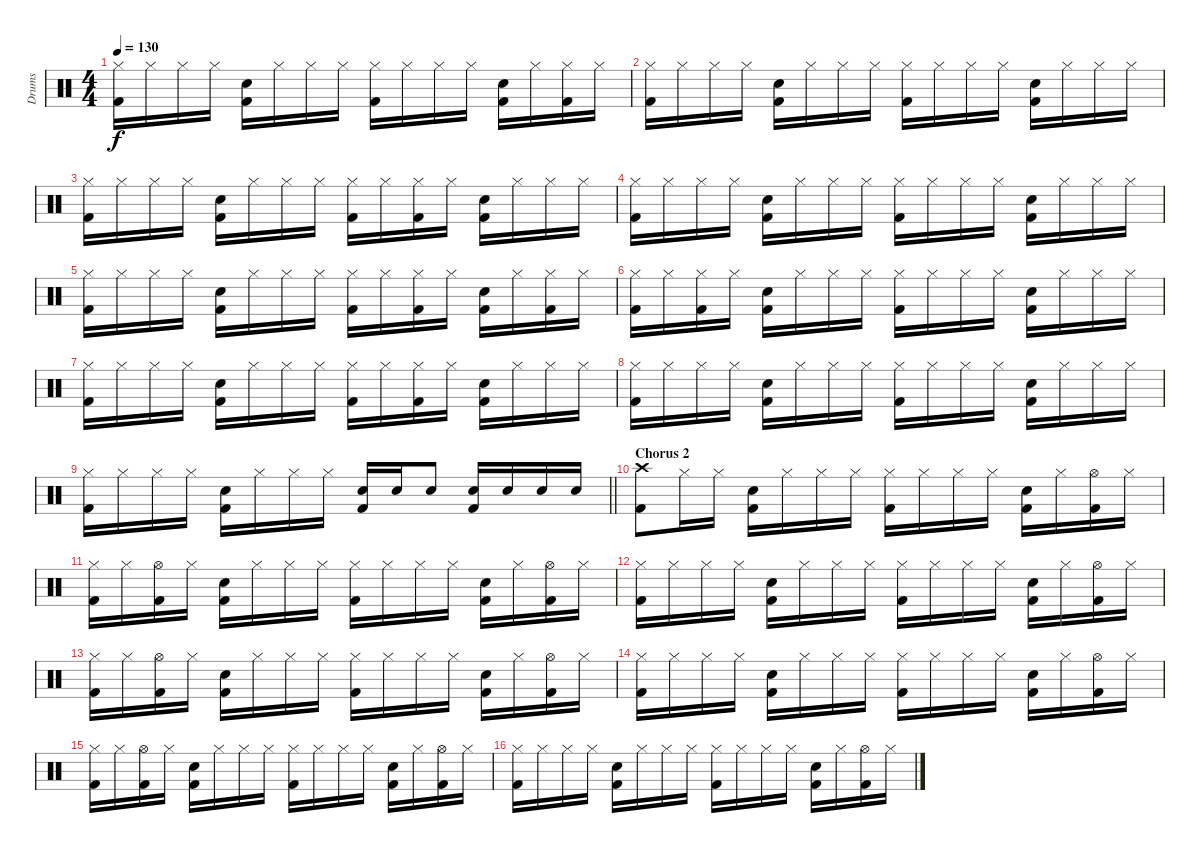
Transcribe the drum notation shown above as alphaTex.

\track ("Drums" "Drums") {instrument percussion}
\staff {score}
\articulation defaults
\ts (4 4)
\tempo 130
\clef neutral
\ks c
("Hi-Hat (closed)" "Kick (hit) 2").16{dy f} "Hi-Hat (closed)".16 "Hi-Hat (closed)".16 "Hi-Hat (closed)".16 ("Electric Snare (hit)" "Kick (hit) 2").16 "Hi-Hat (closed)".16 "Hi-Hat (closed)".16 "Hi-Hat (closed)".16 ("Hi-Hat (closed)" "Kick (hit) 2").16 "Hi-Hat (closed)".16 "Hi-Hat (closed)".16 "Hi-Hat (closed)".16 ("Electric Snare (hit)" "Kick (hit) 2").16 "Hi-Hat (closed)".16 ("Hi-Hat (closed)" "Kick (hit) 2").16 "Hi-Hat (closed)".16 |
("Hi-Hat (closed)" "Kick (hit) 2").16 "Hi-Hat (closed)".16 "Hi-Hat (closed)".16 "Hi-Hat (closed)".16 ("Electric Snare (hit)" "Kick (hit) 2").16 "Hi-Hat (closed)".16 "Hi-Hat (closed)".16 "Hi-Hat (closed)".16 ("Hi-Hat (closed)" "Kick (hit) 2").16 "Hi-Hat (closed)".16 "Hi-Hat (closed)".16 "Hi-Hat (closed)".16 ("Electric Snare (hit)" "Kick (hit) 2").16 "Hi-Hat (closed)".16 "Hi-Hat (closed)".16 "Hi-Hat (closed)".16 |
("Hi-Hat (closed)" "Kick (hit) 2").16 "Hi-Hat (closed)".16 "Hi-Hat (closed)".16 "Hi-Hat (closed)".16 ("Electric Snare (hit)" "Kick (hit) 2").16 "Hi-Hat (closed)".16 "Hi-Hat (closed)".16 "Hi-Hat (closed)".16 ("Hi-Hat (closed)" "Kick (hit) 2").16 "Hi-Hat (closed)".16 ("Hi-Hat (closed)" "Kick (hit) 2").16 "Hi-Hat (closed)".16 ("Electric Snare (hit)" "Kick (hit) 2").16 "Hi-Hat (closed)".16 "Hi-Hat (closed)".16 "Hi-Hat (closed)".16 |
("Hi-Hat (closed)" "Kick (hit) 2").16 "Hi-Hat (closed)".16 "Hi-Hat (closed)".16 "Hi-Hat (closed)".16 ("Electric Snare (hit)" "Kick (hit) 2").16 "Hi-Hat (closed)".16 "Hi-Hat (closed)".16 "Hi-Hat (closed)".16 ("Hi-Hat (closed)" "Kick (hit) 2").16 "Hi-Hat (closed)".16 "Hi-Hat (closed)".16 "Hi-Hat (closed)".16 ("Electric Snare (hit)" "Kick (hit) 2").16 "Hi-Hat (closed)".16 "Hi-Hat (closed)".16 "Hi-Hat (closed)".16 |
("Hi-Hat (closed)" "Kick (hit) 2").16 "Hi-Hat (closed)".16 "Hi-Hat (closed)".16 "Hi-Hat (closed)".16 ("Electric Snare (hit)" "Kick (hit) 2").16 "Hi-Hat (closed)".16 "Hi-Hat (closed)".16 "Hi-Hat (closed)".16 ("Hi-Hat (closed)" "Kick (hit) 2").16 "Hi-Hat (closed)".16 ("Hi-Hat (closed)" "Kick (hit) 2").16 "Hi-Hat (closed)".16 ("Electric Snare (hit)" "Kick (hit) 2").16 "Hi-Hat (closed)".16 ("Hi-Hat (closed)" "Kick (hit) 2").16 "Hi-Hat (closed)".16 |
("Hi-Hat (closed)" "Kick (hit) 2").16 "Hi-Hat (closed)".16 ("Hi-Hat (closed)" "Kick (hit) 2").16 "Hi-Hat (closed)".16 ("Electric Snare (hit)" "Kick (hit) 2").16 "Hi-Hat (closed)".16 "Hi-Hat (closed)".16 "Hi-Hat (closed)".16 ("Hi-Hat (closed)" "Kick (hit) 2").16 "Hi-Hat (closed)".16 "Hi-Hat (closed)".16 "Hi-Hat (closed)".16 ("Electric Snare (hit)" "Kick (hit) 2").16 "Hi-Hat (closed)".16 "Hi-Hat (closed)".16 "Hi-Hat (closed)".16 |
("Hi-Hat (closed)" "Kick (hit) 2").16 "Hi-Hat (closed)".16 "Hi-Hat (closed)".16 "Hi-Hat (closed)".16 ("Electric Snare (hit)" "Kick (hit) 2").16 "Hi-Hat (closed)".16 "Hi-Hat (closed)".16 "Hi-Hat (closed)".16 ("Hi-Hat (closed)" "Kick (hit) 2").16 "Hi-Hat (closed)".16 ("Hi-Hat (closed)" "Kick (hit) 2").16 "Hi-Hat (closed)".16 ("Electric Snare (hit)" "Kick (hit) 2").16 "Hi-Hat (closed)".16 "Hi-Hat (closed)".16 "Hi-Hat (closed)".16 |
("Hi-Hat (closed)" "Kick (hit) 2").16 "Hi-Hat (closed)".16 "Hi-Hat (closed)".16 "Hi-Hat (closed)".16 ("Electric Snare (hit)" "Kick (hit) 2").16 "Hi-Hat (closed)".16 "Hi-Hat (closed)".16 "Hi-Hat (closed)".16 ("Hi-Hat (closed)" "Kick (hit) 2").16 "Hi-Hat (closed)".16 "Hi-Hat (closed)".16 "Hi-Hat (closed)".16 ("Electric Snare (hit)" "Kick (hit) 2").16 "Hi-Hat (closed)".16 "Hi-Hat (closed)".16 "Hi-Hat (closed)".16 |
\barLineRight lightlight
("Hi-Hat (closed)" "Kick (hit) 2").16 "Hi-Hat (closed)".16 "Hi-Hat (closed)".16 "Hi-Hat (closed)".16 ("Electric Snare (hit)" "Kick (hit) 2").16 "Hi-Hat (closed)".16 "Hi-Hat (closed)".16 "Hi-Hat (closed)".16 ("Electric Snare (hit)" "Kick (hit) 2").16 "Electric Snare (hit)".16 "Electric Snare (hit)".8 ("Electric Snare (hit)" "Kick (hit) 2").16 "Electric Snare (hit)".16 "Electric Snare (hit)".16 "Electric Snare (hit)".16 |
\section ("" "Chorus 2")
("Crash high (hit)" "Kick (hit) 2").8 "Hi-Hat (closed)".16 "Hi-Hat (closed)".16 ("Electric Snare (hit)" "Kick (hit) 2").16 "Hi-Hat (closed)".16 "Hi-Hat (closed)".16 "Hi-Hat (closed)".16 ("Hi-Hat (closed)" "Kick (hit) 2").16 "Hi-Hat (closed)".16 "Hi-Hat (closed)".16 "Hi-Hat (closed)".16 ("Electric Snare (hit)" "Kick (hit) 2").16 "Hi-Hat (closed)".16 ("Hi-Hat (open)" "Kick (hit) 2").16 "Hi-Hat (closed)".16 |
("Hi-Hat (closed)" "Kick (hit) 2").16 "Hi-Hat (closed)".16 ("Hi-Hat (open)" "Kick (hit) 2").16 "Hi-Hat (closed)".16 ("Electric Snare (hit)" "Kick (hit) 2").16 "Hi-Hat (closed)".16 "Hi-Hat (closed)".16 "Hi-Hat (closed)".16 ("Hi-Hat (closed)" "Kick (hit) 2").16 "Hi-Hat (closed)".16 "Hi-Hat (closed)".16 "Hi-Hat (closed)".16 ("Electric Snare (hit)" "Kick (hit) 2").16 "Hi-Hat (closed)".16 ("Hi-Hat (open)" "Kick (hit) 2").16 "Hi-Hat (closed)".16 |
("Hi-Hat (closed)" "Kick (hit) 2").16 "Hi-Hat (closed)".16 "Hi-Hat (closed)".16 "Hi-Hat (closed)".16 ("Electric Snare (hit)" "Kick (hit) 2").16 "Hi-Hat (closed)".16 "Hi-Hat (closed)".16 "Hi-Hat (closed)".16 ("Hi-Hat (closed)" "Kick (hit) 2").16 "Hi-Hat (closed)".16 "Hi-Hat (closed)".16 "Hi-Hat (closed)".16 ("Electric Snare (hit)" "Kick (hit) 2").16 "Hi-Hat (closed)".16 ("Hi-Hat (open)" "Kick (hit) 2").16 "Hi-Hat (closed)".16 |
("Hi-Hat (closed)" "Kick (hit) 2").16 "Hi-Hat (closed)".16 ("Hi-Hat (open)" "Kick (hit) 2").16 "Hi-Hat (closed)".16 ("Electric Snare (hit)" "Kick (hit) 2").16 "Hi-Hat (closed)".16 "Hi-Hat (closed)".16 "Hi-Hat (closed)".16 ("Hi-Hat (closed)" "Kick (hit) 2").16 "Hi-Hat (closed)".16 "Hi-Hat (closed)".16 "Hi-Hat (closed)".16 ("Electric Snare (hit)" "Kick (hit) 2").16 "Hi-Hat (closed)".16 ("Hi-Hat (open)" "Kick (hit) 2").16 "Hi-Hat (closed)".16 |
("Hi-Hat (closed)" "Kick (hit) 2").16 "Hi-Hat (closed)".16 "Hi-Hat (closed)".16 "Hi-Hat (closed)".16 ("Electric Snare (hit)" "Kick (hit) 2").16 "Hi-Hat (closed)".16 "Hi-Hat (closed)".16 "Hi-Hat (closed)".16 ("Hi-Hat (closed)" "Kick (hit) 2").16 "Hi-Hat (closed)".16 "Hi-Hat (closed)".16 "Hi-Hat (closed)".16 ("Electric Snare (hit)" "Kick (hit) 2").16 "Hi-Hat (closed)".16 ("Hi-Hat (open)" "Kick (hit) 2").16 "Hi-Hat (closed)".16 |
("Hi-Hat (closed)" "Kick (hit) 2").16 "Hi-Hat (closed)".16 ("Hi-Hat (open)" "Kick (hit) 2").16 "Hi-Hat (closed)".16 ("Electric Snare (hit)" "Kick (hit) 2").16 "Hi-Hat (closed)".16 "Hi-Hat (closed)".16 "Hi-Hat (closed)".16 ("Hi-Hat (closed)" "Kick (hit) 2").16 "Hi-Hat (closed)".16 "Hi-Hat (closed)".16 "Hi-Hat (closed)".16 ("Electric Snare (hit)" "Kick (hit) 2").16 "Hi-Hat (closed)".16 ("Hi-Hat (open)" "Kick (hit) 2").16 "Hi-Hat (closed)".16 |
("Hi-Hat (closed)" "Kick (hit) 2").16 "Hi-Hat (closed)".16 "Hi-Hat (closed)".16 "Hi-Hat (closed)".16 ("Electric Snare (hit)" "Kick (hit) 2").16 "Hi-Hat (closed)".16 "Hi-Hat (closed)".16 "Hi-Hat (closed)".16 ("Hi-Hat (closed)" "Kick (hit) 2").16 "Hi-Hat (closed)".16 "Hi-Hat (closed)".16 "Hi-Hat (closed)".16 ("Electric Snare (hit)" "Kick (hit) 2").16 "Hi-Hat (closed)".16 ("Hi-Hat (open)" "Kick (hit) 2").16 "Hi-Hat (closed)".16
